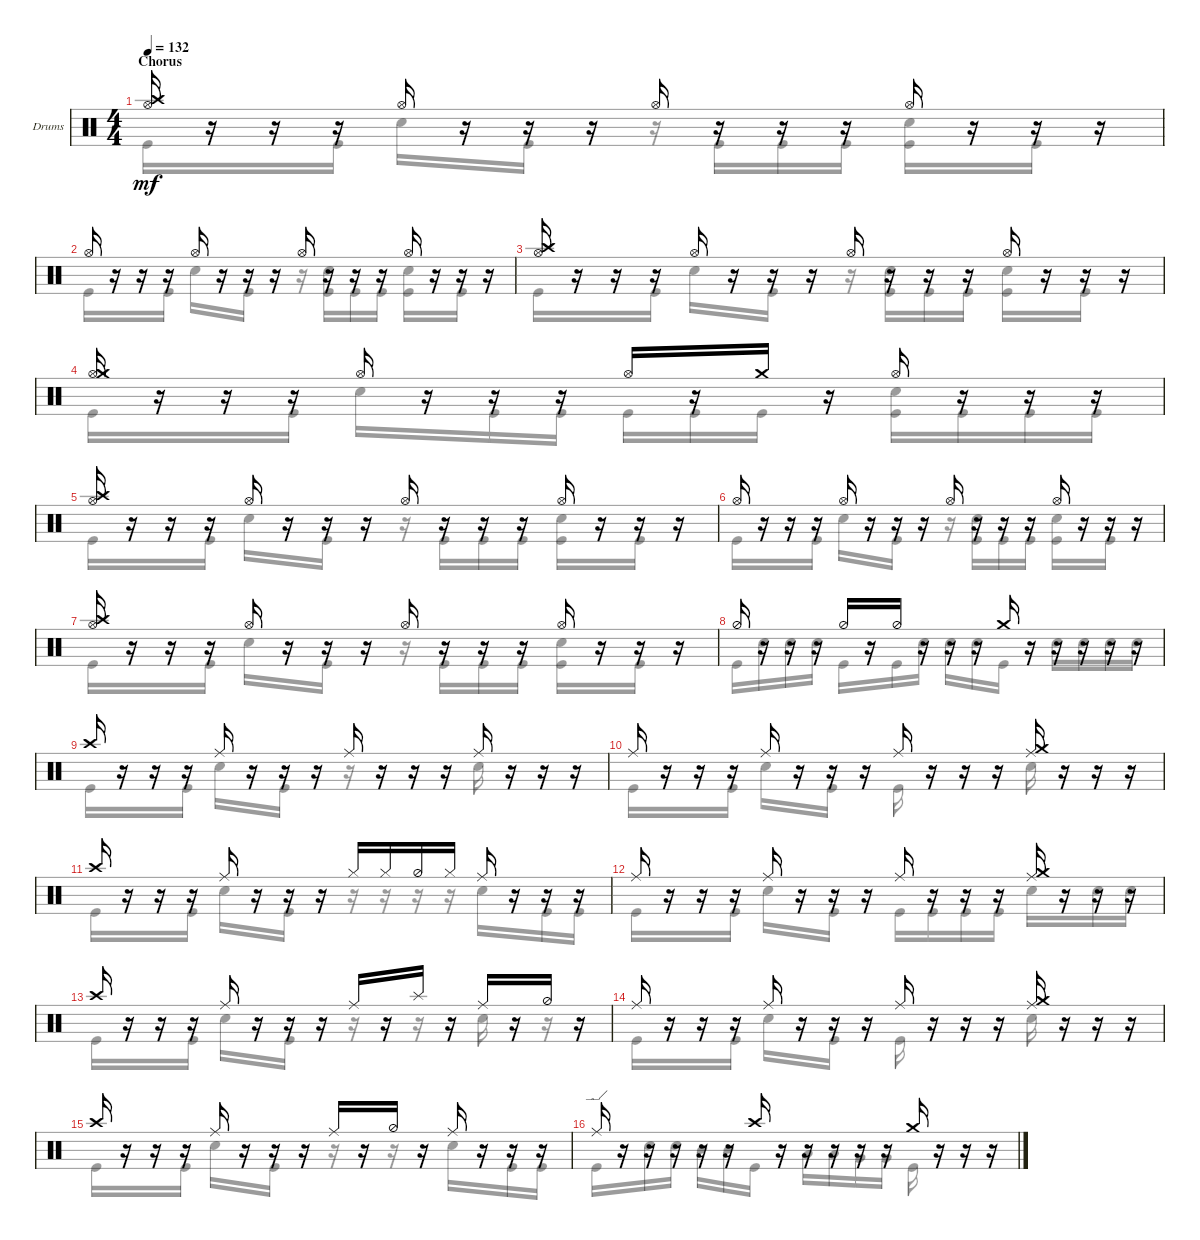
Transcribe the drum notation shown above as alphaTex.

\defaultSystemsLayout 4
\bracketExtendMode groupsimilarinstruments
\firstSystemTrackNameOrientation horizontal
\otherSystemsTrackNameOrientation horizontal
\track ("Drumkit" "Drums") {instrument percussion}
\staff {score}
\articulation defaults
\voice
\ts (4 4)
\section ("" "Chorus")
\tempo 132
\clef neutral
\scale
0.333333
\ks c
("Crash high (hit)" "Hi-Hat (open)").16{dy mf} r.16 r.16 r.16 "Hi-Hat (open)".16 r.16 r.16 r.16 "Hi-Hat (open)".16 r.16 r.16 r.16 "Hi-Hat (open)".16 r.16 r.16 r.16 |
\scale
0.333333 "Hi-Hat (open)".16 r.16 r.16 r.16 "Hi-Hat (open)".16 r.16 r.16 r.16 "Hi-Hat (open)".16 r.16 r.16 r.16 "Hi-Hat (open)".16 r.16 r.16 r.16 |
\scale
0.333333 ("Crash high (hit)" "Hi-Hat (open)").16 r.16 r.16 r.16 "Hi-Hat (open)".16 r.16 r.16 r.16 "Hi-Hat (open)".16 r.16 r.16 r.16 "Hi-Hat (open)".16 r.16 r.16 r.16 |
\scale
0.333333 ("Hi-Hat (open)" "Crash medium (hit)").16 r.16 r.16 r.16 "Hi-Hat (open)".16 r.16 r.16 r.16 "Hi-Hat (open)".16 r.16 "Crash medium (hit)".16 r.16 "Hi-Hat (open)".16 r.16 r.16 r.16 |
\scale
0.333333 ("Crash high (hit)" "Hi-Hat (open)").16 r.16 r.16 r.16 "Hi-Hat (open)".16 r.16 r.16 r.16 "Hi-Hat (open)".16 r.16 r.16 r.16 "Hi-Hat (open)".16 r.16 r.16 r.16 |
\scale
0.333333 "Hi-Hat (open)".16 r.16 r.16 r.16 "Hi-Hat (open)".16 r.16 r.16 r.16 "Hi-Hat (open)".16 r.16 r.16 r.16 "Hi-Hat (open)".16 r.16 r.16 r.16 |
\scale
0.333333 ("Crash high (hit)" "Hi-Hat (open)").16 r.16 r.16 r.16 "Hi-Hat (open)".16 r.16 r.16 r.16 "Hi-Hat (open)".16 r.16 r.16 r.16 "Hi-Hat (open)".16 r.16 r.16 r.16 |
\scale
0.333333 "Hi-Hat (half)".16 r.16 r.16 r.16 "Hi-Hat (half)".16 r.16 "Hi-Hat (half)".16 r.16 r.16 r.16 "Crash medium (hit)".16 r.16 r.16 r.16 r.16 r.16 |
\scale
0.333333 "Crash high (hit)".16 r.16 r.16 r.16 "Ride (middle)".16 r.16 r.16 r.16 "Ride (middle)".16 r.16 r.16 r.16 "Ride (middle)".16 r.16 r.16 r.16 |
\scale
0.333333 "Ride (middle)".16 r.16 r.16 r.16 "Ride (middle)".16 r.16 r.16 r.16 "Ride (middle)".16 r.16 r.16 r.16 ("Crash medium (hit)" "Ride (middle)").16 r.16 r.16 r.16 |
\scale
0.333333 "Crash high (hit)".16 r.16 r.16 r.16 "Ride (middle)".16 r.16 r.16 r.16 "Hi-Hat (closed)".16 "Hi-Hat (closed)".16 "Hi-Hat (half)".16 "Hi-Hat (closed)".16 "Ride (middle)".16 r.16 r.16 r.16 |
\scale
0.333333 "Ride (middle)".16 r.16 r.16 r.16 "Ride (middle)".16 r.16 r.16 r.16 "Ride (middle)".16 r.16 r.16 r.16 ("Crash medium (hit)" "Ride (middle)").16 r.16 r.16 r.16 |
\scale
0.333333 "Crash high (hit)".16 r.16 r.16 r.16 "Ride (middle)".16 r.16 r.16 r.16 "Ride (middle)".16 r.16 "Splash (hit)".16 r.16 "Ride (middle)".16 r.16 "Hi-Hat (half)".16 r.16 |
\scale
0.333333 "Ride (middle)".16 r.16 r.16 r.16 "Ride (middle)".16 r.16 r.16 r.16 "Ride (middle)".16 r.16 r.16 r.16 ("Crash medium (hit)" "Ride (middle)").16 r.16 r.16 r.16 |
\scale
0.333333 "Crash high (hit)".16 r.16 r.16 r.16 "Ride (middle)".16 r.16 r.16 r.16 "Ride (middle)".16 r.16 "Hi-Hat (half)".16 r.16 "Ride (middle)".16 r.16 r.16 r.16 |
\scale
0.333333 "Ride (edge)".16 r.16 r.16 r.16 r.16 r.16 "Crash high (hit)".16 r.16 r.16 r.16 r.16 r.16 "Crash medium (hit)".16 r.16 r.16 r.16
\voice
\clef neutral
\ottava regular
\simile none
\scale
0.333333
\ks c "Kick (hit)".16{dy mf}
r.16 r.16 "Kick (hit)".16 "Snare (hit) 2".16 r.16 "Kick (hit)".16 r.16 r.16 "Kick (hit)".16 "Kick (hit)".16 "Kick (hit)".16 ("Kick (hit)" "Snare (hit) 2").16 r.16 "Kick (hit)".16 r.16 |
\scale
0.333333 "Kick (hit)".16 r.16 r.16 "Kick (hit)".16 "Snare (hit) 2".16 r.16 "Kick (hit)".16 r.16 r.16 ("Kick (hit)" "Snare (hit) 2").16 "Kick (hit)".16 "Kick (hit)".16 ("Kick (hit)" "Snare (hit) 2").16 r.16 "Kick (hit)".16 r.16 |
\scale
0.333333 "Kick (hit)".16 r.16 r.16 "Kick (hit)".16 "Snare (hit) 2".16 r.16 "Kick (hit)".16 r.16 r.16 ("Kick (hit)" "Snare (hit) 2").16 "Kick (hit)".16 "Kick (hit)".16 ("Kick (hit)" "Snare (hit) 2").16 r.16 "Kick (hit)".16 r.16 |
\scale
0.333333 "Kick (hit)".16 r.16 r.16 "Kick (hit)".16 "Snare (hit) 2".16 r.16 "Kick (hit)".16 "Kick (hit)".16 "Kick (hit)".16 "Kick (hit)".16 "Kick (hit)".16 r.16 ("Snare (hit) 2" "Kick (hit)").16 "Kick (hit)".16 "Kick (hit)".16 "Kick (hit)".16 |
\scale
0.333333 "Kick (hit)".16 r.16 r.16 "Kick (hit)".16 "Snare (hit) 2".16 r.16 "Kick (hit)".16 r.16 r.16 "Kick (hit)".16 "Kick (hit)".16 "Kick (hit)".16 ("Kick (hit)" "Snare (hit) 2").16 r.16 "Kick (hit)".16 r.16 |
\scale
0.333333 "Kick (hit)".16 r.16 r.16 "Kick (hit)".16 "Snare (hit) 2".16 r.16 "Kick (hit)".16 r.16 r.16 ("Kick (hit)" "Snare (hit) 2").16 "Kick (hit)".16 "Kick (hit)".16 ("Kick (hit)" "Snare (hit) 2").16 r.16 "Kick (hit)".16 r.16 |
\scale
0.333333 "Kick (hit)".16 r.16 r.16 "Kick (hit)".16 "Snare (hit) 2".16 r.16 "Kick (hit)".16 r.16 r.16 "Kick (hit)".16 "Kick (hit)".16 "Kick (hit)".16 ("Kick (hit)" "Snare (hit) 2").16 r.16 "Kick (hit)".16 r.16 |
\scale
0.333333 "Kick (hit)".16 "Snare (hit) 2".16 "Snare (hit) 2".16 "Snare (hit) 2".16 "Kick (hit)".16 r.16 "Kick (hit)".16 "Snare (hit) 2".16 "Snare (hit) 2".16 "Snare (hit) 2".16 "Kick (hit)".16 r.16 "Snare (hit) 2".16 "Snare (hit) 2".16 "Snare (hit) 2".16 "Snare (hit) 2".16 |
\scale
0.333333 "Kick (hit)".16 r.16 r.16 "Kick (hit)".16 "Snare (hit) 2".16 r.16 "Kick (hit)".16 r.16 r.16 r.16 r.16 r.16 "Snare (hit) 2".16 r.16 r.16 r.16 |
\scale
0.333333 "Kick (hit)".16 r.16 r.16 "Kick (hit)".16 "Snare (hit) 2".16 r.16 "Kick (hit)".16 r.16 "Kick (hit)".16 r.16 r.16 r.16 "Snare (hit) 2".16 r.16 r.16 r.16 |
\scale
0.333333 "Kick (hit)".16 r.16 r.16 "Kick (hit)".16 "Snare (hit) 2".16 r.16 "Kick (hit)".16 r.16 r.16 r.16 r.16 r.16 "Snare (hit) 2".16 r.16 "Kick (hit)".16 "Kick (hit)".16 |
\scale
0.333333 "Kick (hit)".16 r.16 r.16 "Kick (hit)".16 "Snare (hit) 2".16 r.16 "Kick (hit)".16 r.16 "Kick (hit)".16 "Kick (hit)".16 "Kick (hit)".16 "Kick (hit)".16 "Snare (hit) 2".16 r.16 "Snare (hit) 2".16 "Snare (hit) 2".16 |
\scale
0.333333 "Kick (hit)".16 r.16 r.16 "Kick (hit)".16 "Snare (hit) 2".16 r.16 "Kick (hit)".16 r.16 r.16 r.16 r.16 r.16 "Snare (hit) 2".16 r.16 r.16 r.16 |
\scale
0.333333 "Kick (hit)".16 r.16 r.16 "Kick (hit)".16 "Snare (hit) 2".16 r.16 "Kick (hit)".16 r.16 "Kick (hit)".16 r.16 r.16 r.16 "Snare (hit) 2".16 r.16 r.16 r.16 |
\scale
0.333333 "Kick (hit)".16 r.16 r.16 "Kick (hit)".16 "Snare (hit) 2".16 r.16 "Kick (hit)".16 r.16 r.16 r.16 r.16 r.16 "Snare (hit) 2".16 r.16 "Kick (hit)".16 "Kick (hit)".16 |
\scale
0.333333 "Kick (hit)".16 r.16 "Snare (hit) 2".16 "Snare (hit) 2".16 "Mid Tom (hit)".16 "Mid Tom (hit)".16 "Kick (hit)".16 r.16 "Low Tom (hit)".16 "Low Tom (hit)".16 "Very Low Tom (hit)".16 "Very Low Tom (hit)".16 "Kick (hit)".16 r.16 r.16 r.16
